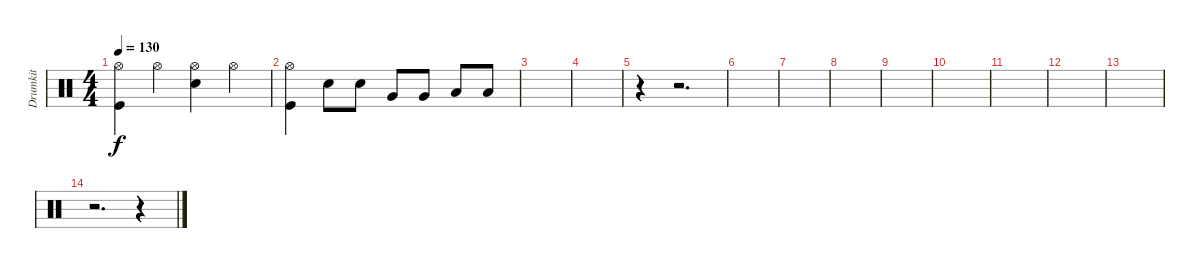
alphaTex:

\track ("Drumkit" "Drumkit") {instrument percussion}
\staff {score}
\articulation defaults
\ts (4 4)
\tempo 130
\clef neutral
\ks c
("Hi-Hat (open)" "Kick (hit)").4{dy f} "Hi-Hat (open)".4 ("Hi-Hat (open)" "Snare (hit) 2").4 "Hi-Hat (open)".4 |
("Hi-Hat (open)" "Kick (hit)").4 "Snare (hit) 2".8 "Snare (hit) 2".8 "Very Low Tom (hit)".8 "Very Low Tom (hit)".8 "Low Tom (hit)".8 "Low Tom (hit)".8 |
|
|
r.4 r.2{d} |
|
|
|
|
|
|
|
|
r.2{d} r.4
